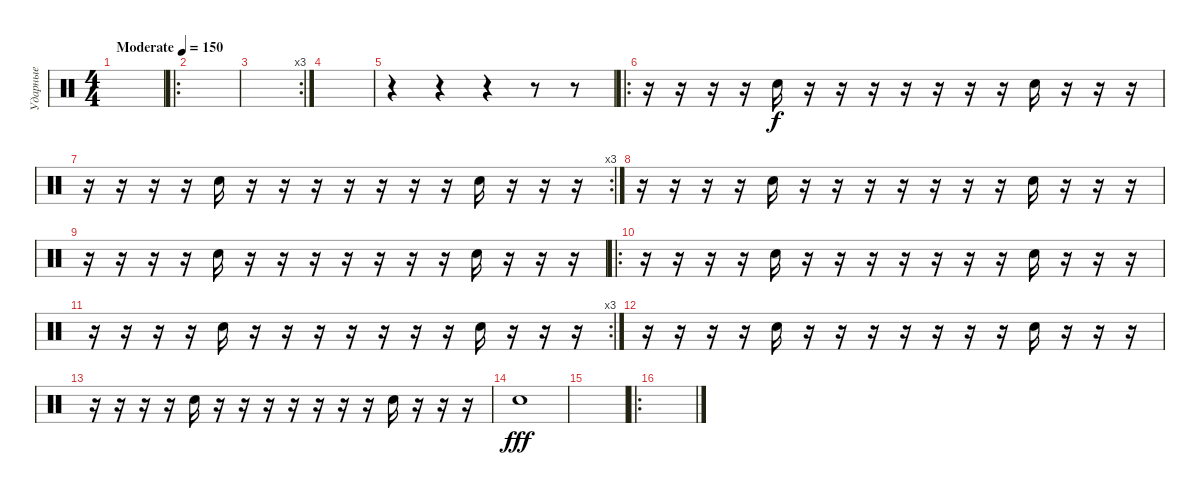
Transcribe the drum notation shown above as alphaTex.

\track ("Ударные" "Ударные") {instrument percussion}
\staff {score}
\articulation defaults
\ts (4 4)
\tempo (150 "Moderate")
\clef neutral
\ks c
|
\ro
|
\rc 3
|
|
r.4 r.4 r.4 r.8 r.8 |
\ro
r.16 r.16 r.16 r.16 "Snare (hit) 2".16 r.16 r.16 r.16 r.16 r.16 r.16 r.16 "Snare (hit) 2".16 r.16 r.16 r.16 |
\rc 3
r.16 r.16 r.16 r.16 "Snare (hit) 2".16 r.16 r.16 r.16 r.16 r.16 r.16 r.16 "Snare (hit) 2".16 r.16 r.16 r.16 |
r.16 r.16 r.16 r.16 "Snare (hit) 2".16 r.16 r.16 r.16 r.16 r.16 r.16 r.16 "Snare (hit) 2".16 r.16 r.16 r.16 |
r.16 r.16 r.16 r.16 "Snare (hit) 2".16 r.16 r.16 r.16 r.16 r.16 r.16 r.16 "Snare (hit) 2".16 r.16 r.16 r.16 |
\ro
r.16 r.16 r.16 r.16 "Snare (hit) 2".16 r.16 r.16 r.16 r.16 r.16 r.16 r.16 "Snare (hit) 2".16 r.16 r.16 r.16 |
\rc 3
r.16 r.16 r.16 r.16 "Snare (hit) 2".16 r.16 r.16 r.16 r.16 r.16 r.16 r.16 "Snare (hit) 2".16 r.16 r.16 r.16 |
r.16 r.16 r.16 r.16 "Snare (hit) 2".16 r.16 r.16 r.16 r.16 r.16 r.16 r.16 "Snare (hit) 2".16 r.16 r.16 r.16 |
r.16 r.16 r.16 r.16 "Snare (hit) 2".16 r.16 r.16 r.16 r.16 r.16 r.16 r.16 "Snare (hit) 2".16 r.16 r.16 r.16 |
"Snare (hit) 2".1{dy fff} |
|
\ro
